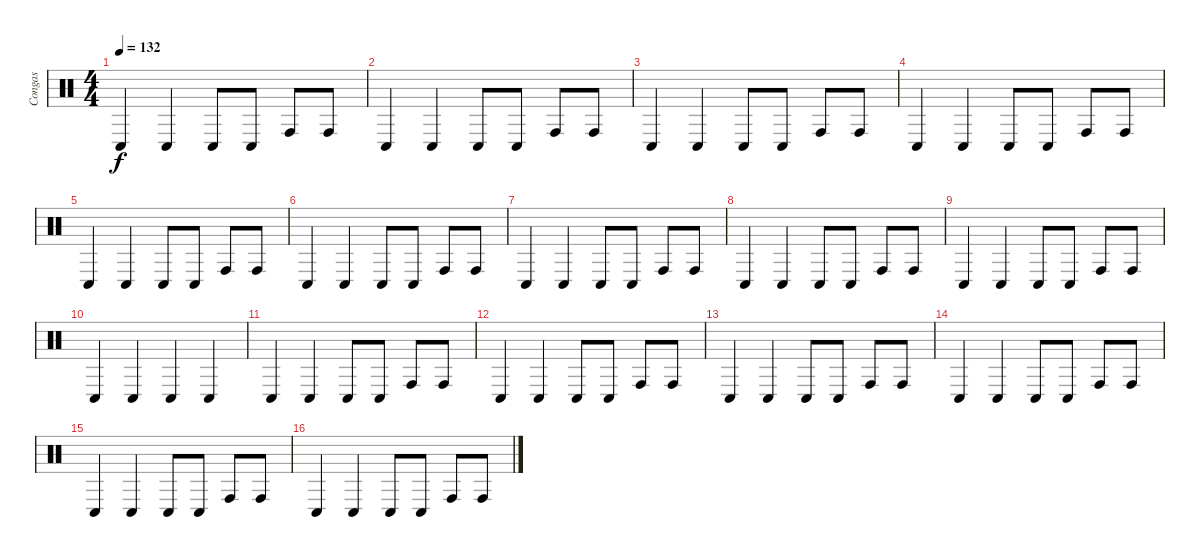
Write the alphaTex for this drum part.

\track ("Congas" "Congas") {instrument percussion}
\staff {score}
\articulation defaults
\ts (4 4)
\tempo 132
\clef neutral
\ks c "Conga low (hit)".4{dy f} "Conga low (hit)".4 "Conga low (hit)".8 "Conga low (hit)".8 "Conga high (hit)".8 "Conga high (hit)".8
|
"Conga low (hit)".4 "Conga low (hit)".4 "Conga low (hit)".8 "Conga low (hit)".8 "Conga high (hit)".8 "Conga high (hit)".8 |
"Conga low (hit)".4 "Conga low (hit)".4 "Conga low (hit)".8 "Conga low (hit)".8 "Conga high (hit)".8 "Conga high (hit)".8 |
"Conga low (hit)".4 "Conga low (hit)".4 "Conga low (hit)".8 "Conga low (hit)".8 "Conga high (hit)".8 "Conga high (hit)".8 |
"Conga low (hit)".4 "Conga low (hit)".4 "Conga low (hit)".8 "Conga low (hit)".8 "Conga high (hit)".8 "Conga high (hit)".8 |
"Conga low (hit)".4 "Conga low (hit)".4 "Conga low (hit)".8 "Conga low (hit)".8 "Conga high (hit)".8 "Conga high (hit)".8 |
"Conga low (hit)".4 "Conga low (hit)".4 "Conga low (hit)".8 "Conga low (hit)".8 "Conga high (hit)".8 "Conga high (hit)".8 |
"Conga low (hit)".4 "Conga low (hit)".4 "Conga low (hit)".8 "Conga low (hit)".8 "Conga high (hit)".8 "Conga high (hit)".8 |
"Conga low (hit)".4 "Conga low (hit)".4 "Conga low (hit)".8 "Conga low (hit)".8 "Conga high (hit)".8 "Conga high (hit)".8 |
"Conga low (hit)".4 "Conga low (hit)".4 "Conga low (hit)".4 "Conga low (hit)".4 |
"Conga low (hit)".4 "Conga low (hit)".4 "Conga low (hit)".8 "Conga low (hit)".8 "Conga high (hit)".8 "Conga high (hit)".8 |
"Conga low (hit)".4 "Conga low (hit)".4 "Conga low (hit)".8 "Conga low (hit)".8 "Conga high (hit)".8 "Conga high (hit)".8 |
"Conga low (hit)".4 "Conga low (hit)".4 "Conga low (hit)".8 "Conga low (hit)".8 "Conga high (hit)".8 "Conga high (hit)".8 |
"Conga low (hit)".4 "Conga low (hit)".4 "Conga low (hit)".8 "Conga low (hit)".8 "Conga high (hit)".8 "Conga high (hit)".8 |
"Conga low (hit)".4 "Conga low (hit)".4 "Conga low (hit)".8 "Conga low (hit)".8 "Conga high (hit)".8 "Conga high (hit)".8 |
"Conga low (hit)".4 "Conga low (hit)".4 "Conga low (hit)".8 "Conga low (hit)".8 "Conga high (hit)".8 "Conga high (hit)".8
